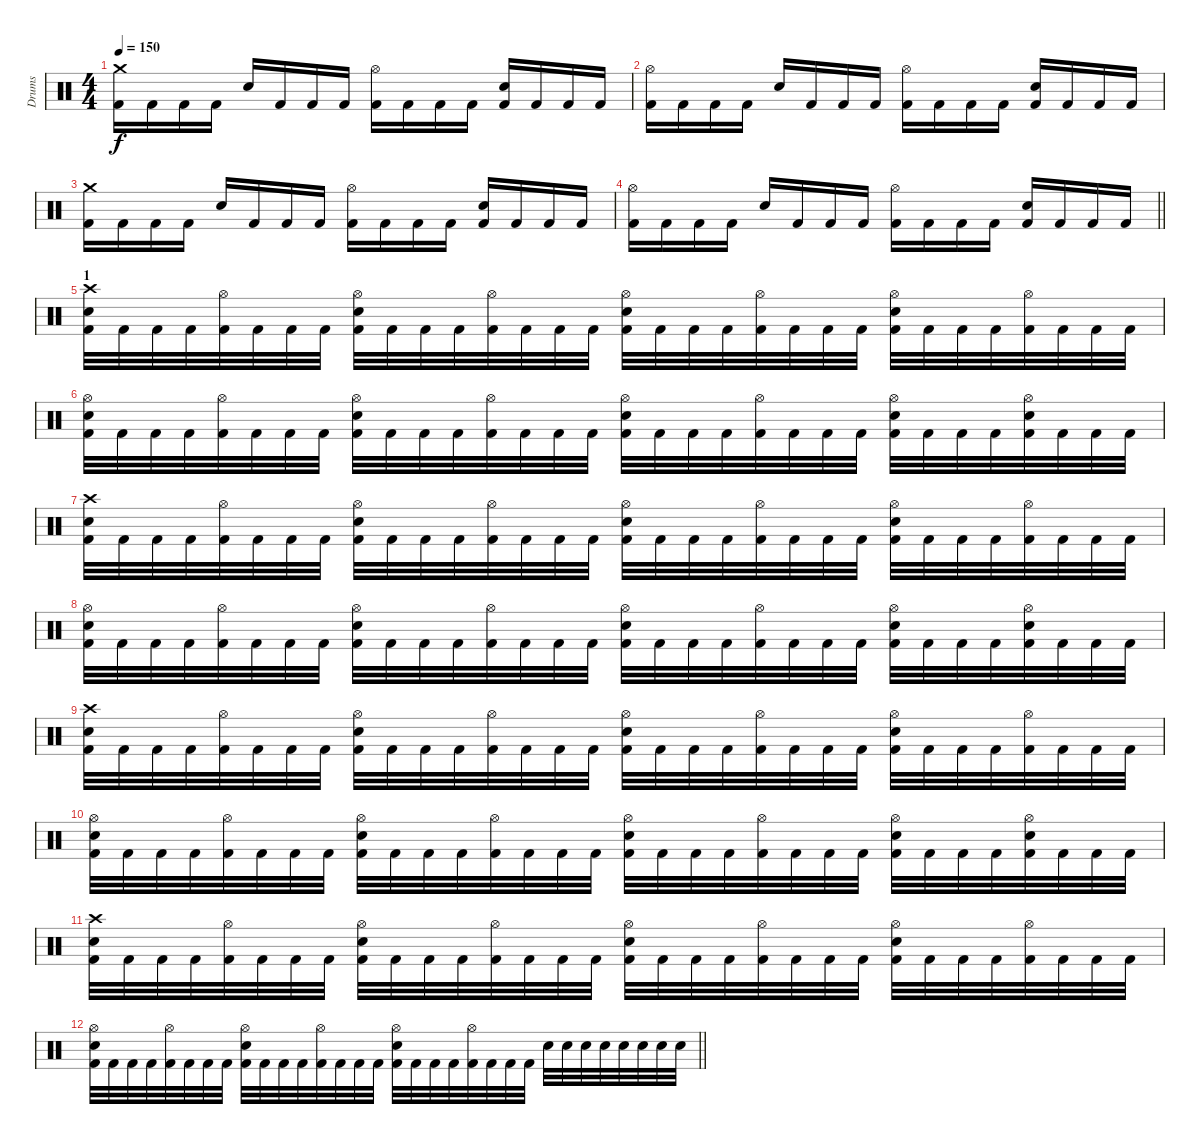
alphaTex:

\track ("Drums" "Drums") {instrument percussion}
\staff {score}
\articulation defaults
\ts (4 4)
\tempo 150
\clef neutral
\ks c
("Crash medium (hit)" "Kick (hit) 2").16{dy f} "Kick (hit) 2".16 "Kick (hit) 2".16 "Kick (hit) 2".16 "Snare (hit) 2".16 "Kick (hit) 2".16 "Kick (hit) 2".16 "Kick (hit) 2".16 ("Hi-Hat (open)" "Kick (hit) 2").16 "Kick (hit) 2".16 "Kick (hit) 2".16 "Kick (hit) 2".16 ("Snare (hit) 2" "Kick (hit) 2").16 "Kick (hit) 2".16 "Kick (hit) 2".16 "Kick (hit) 2".16 |
("Hi-Hat (open)" "Kick (hit) 2").16 "Kick (hit) 2".16 "Kick (hit) 2".16 "Kick (hit) 2".16 "Snare (hit) 2".16 "Kick (hit) 2".16 "Kick (hit) 2".16 "Kick (hit) 2".16 ("Hi-Hat (open)" "Kick (hit) 2").16 "Kick (hit) 2".16 "Kick (hit) 2".16 "Kick (hit) 2".16 ("Snare (hit) 2" "Kick (hit) 2").16 "Kick (hit) 2".16 "Kick (hit) 2".16 "Kick (hit) 2".16 |
("Crash medium (hit)" "Kick (hit) 2").16 "Kick (hit) 2".16 "Kick (hit) 2".16 "Kick (hit) 2".16 "Snare (hit) 2".16 "Kick (hit) 2".16 "Kick (hit) 2".16 "Kick (hit) 2".16 ("Hi-Hat (open)" "Kick (hit) 2").16 "Kick (hit) 2".16 "Kick (hit) 2".16 "Kick (hit) 2".16 ("Snare (hit) 2" "Kick (hit) 2").16 "Kick (hit) 2".16 "Kick (hit) 2".16 "Kick (hit) 2".16 |
\barLineRight lightlight
("Hi-Hat (open)" "Kick (hit) 2").16 "Kick (hit) 2".16 "Kick (hit) 2".16 "Kick (hit) 2".16 "Snare (hit) 2".16 "Kick (hit) 2".16 "Kick (hit) 2".16 "Kick (hit) 2".16 ("Hi-Hat (open)" "Kick (hit) 2").16 "Kick (hit) 2".16 "Kick (hit) 2".16 "Kick (hit) 2".16 ("Snare (hit) 2" "Kick (hit) 2").16 "Kick (hit) 2".16 "Kick (hit) 2".16 "Kick (hit) 2".16 |
\section ("" "1")
("Crash high (hit)" "Snare (hit) 2" "Kick (hit) 2").32 "Kick (hit) 2".32 "Kick (hit) 2".32 "Kick (hit) 2".32 ("Hi-Hat (open)" "Kick (hit) 2").32 "Kick (hit) 2".32 "Kick (hit) 2".32 "Kick (hit) 2".32 ("Hi-Hat (open)" "Snare (hit) 2" "Kick (hit) 2").32 "Kick (hit) 2".32 "Kick (hit) 2".32 "Kick (hit) 2".32 ("Hi-Hat (open)" "Kick (hit) 2").32 "Kick (hit) 2".32 "Kick (hit) 2".32 "Kick (hit) 2".32 ("Hi-Hat (open)" "Snare (hit) 2" "Kick (hit) 2").32 "Kick (hit) 2".32 "Kick (hit) 2".32 "Kick (hit) 2".32 ("Hi-Hat (open)" "Kick (hit) 2").32 "Kick (hit) 2".32 "Kick (hit) 2".32 "Kick (hit) 2".32 ("Hi-Hat (open)" "Snare (hit) 2" "Kick (hit) 2").32 "Kick (hit) 2".32 "Kick (hit) 2".32 "Kick (hit) 2".32 ("Hi-Hat (open)" "Kick (hit) 2").32 "Kick (hit) 2".32 "Kick (hit) 2".32 "Kick (hit) 2".32 |
("Hi-Hat (open)" "Snare (hit) 2" "Kick (hit) 2").32 "Kick (hit) 2".32 "Kick (hit) 2".32 "Kick (hit) 2".32 ("Hi-Hat (open)" "Kick (hit) 2").32 "Kick (hit) 2".32 "Kick (hit) 2".32 "Kick (hit) 2".32 ("Hi-Hat (open)" "Snare (hit) 2" "Kick (hit) 2").32 "Kick (hit) 2".32 "Kick (hit) 2".32 "Kick (hit) 2".32 ("Hi-Hat (open)" "Kick (hit) 2").32 "Kick (hit) 2".32 "Kick (hit) 2".32 "Kick (hit) 2".32 ("Hi-Hat (open)" "Snare (hit) 2" "Kick (hit) 2").32 "Kick (hit) 2".32 "Kick (hit) 2".32 "Kick (hit) 2".32 ("Hi-Hat (open)" "Kick (hit) 2").32 "Kick (hit) 2".32 "Kick (hit) 2".32 "Kick (hit) 2".32 ("Hi-Hat (open)" "Snare (hit) 2" "Kick (hit) 2").32 "Kick (hit) 2".32 "Kick (hit) 2".32 "Kick (hit) 2".32 ("Hi-Hat (open)" "Snare (hit) 2" "Kick (hit) 2").32 "Kick (hit) 2".32 "Kick (hit) 2".32 "Kick (hit) 2".32 |
("Crash high (hit)" "Snare (hit) 2" "Kick (hit) 2").32 "Kick (hit) 2".32 "Kick (hit) 2".32 "Kick (hit) 2".32 ("Hi-Hat (open)" "Kick (hit) 2").32 "Kick (hit) 2".32 "Kick (hit) 2".32 "Kick (hit) 2".32 ("Hi-Hat (open)" "Snare (hit) 2" "Kick (hit) 2").32 "Kick (hit) 2".32 "Kick (hit) 2".32 "Kick (hit) 2".32 ("Hi-Hat (open)" "Kick (hit) 2").32 "Kick (hit) 2".32 "Kick (hit) 2".32 "Kick (hit) 2".32 ("Hi-Hat (open)" "Snare (hit) 2" "Kick (hit) 2").32 "Kick (hit) 2".32 "Kick (hit) 2".32 "Kick (hit) 2".32 ("Hi-Hat (open)" "Kick (hit) 2").32 "Kick (hit) 2".32 "Kick (hit) 2".32 "Kick (hit) 2".32 ("Hi-Hat (open)" "Snare (hit) 2" "Kick (hit) 2").32 "Kick (hit) 2".32 "Kick (hit) 2".32 "Kick (hit) 2".32 ("Hi-Hat (open)" "Kick (hit) 2").32 "Kick (hit) 2".32 "Kick (hit) 2".32 "Kick (hit) 2".32 |
("Hi-Hat (open)" "Snare (hit) 2" "Kick (hit) 2").32 "Kick (hit) 2".32 "Kick (hit) 2".32 "Kick (hit) 2".32 ("Hi-Hat (open)" "Kick (hit) 2").32 "Kick (hit) 2".32 "Kick (hit) 2".32 "Kick (hit) 2".32 ("Hi-Hat (open)" "Snare (hit) 2" "Kick (hit) 2").32 "Kick (hit) 2".32 "Kick (hit) 2".32 "Kick (hit) 2".32 ("Hi-Hat (open)" "Kick (hit) 2").32 "Kick (hit) 2".32 "Kick (hit) 2".32 "Kick (hit) 2".32 ("Hi-Hat (open)" "Snare (hit) 2" "Kick (hit) 2").32 "Kick (hit) 2".32 "Kick (hit) 2".32 "Kick (hit) 2".32 ("Hi-Hat (open)" "Kick (hit) 2").32 "Kick (hit) 2".32 "Kick (hit) 2".32 "Kick (hit) 2".32 ("Hi-Hat (open)" "Snare (hit) 2" "Kick (hit) 2").32 "Kick (hit) 2".32 "Kick (hit) 2".32 "Kick (hit) 2".32 ("Hi-Hat (open)" "Snare (hit) 2" "Kick (hit) 2").32 "Kick (hit) 2".32 "Kick (hit) 2".32 "Kick (hit) 2".32 |
("Crash high (hit)" "Snare (hit) 2" "Kick (hit) 2").32 "Kick (hit) 2".32 "Kick (hit) 2".32 "Kick (hit) 2".32 ("Hi-Hat (open)" "Kick (hit) 2").32 "Kick (hit) 2".32 "Kick (hit) 2".32 "Kick (hit) 2".32 ("Hi-Hat (open)" "Snare (hit) 2" "Kick (hit) 2").32 "Kick (hit) 2".32 "Kick (hit) 2".32 "Kick (hit) 2".32 ("Hi-Hat (open)" "Kick (hit) 2").32 "Kick (hit) 2".32 "Kick (hit) 2".32 "Kick (hit) 2".32 ("Hi-Hat (open)" "Snare (hit) 2" "Kick (hit) 2").32 "Kick (hit) 2".32 "Kick (hit) 2".32 "Kick (hit) 2".32 ("Hi-Hat (open)" "Kick (hit) 2").32 "Kick (hit) 2".32 "Kick (hit) 2".32 "Kick (hit) 2".32 ("Hi-Hat (open)" "Snare (hit) 2" "Kick (hit) 2").32 "Kick (hit) 2".32 "Kick (hit) 2".32 "Kick (hit) 2".32 ("Hi-Hat (open)" "Kick (hit) 2").32 "Kick (hit) 2".32 "Kick (hit) 2".32 "Kick (hit) 2".32 |
("Hi-Hat (open)" "Snare (hit) 2" "Kick (hit) 2").32 "Kick (hit) 2".32 "Kick (hit) 2".32 "Kick (hit) 2".32 ("Hi-Hat (open)" "Kick (hit) 2").32 "Kick (hit) 2".32 "Kick (hit) 2".32 "Kick (hit) 2".32 ("Hi-Hat (open)" "Snare (hit) 2" "Kick (hit) 2").32 "Kick (hit) 2".32 "Kick (hit) 2".32 "Kick (hit) 2".32 ("Hi-Hat (open)" "Kick (hit) 2").32 "Kick (hit) 2".32 "Kick (hit) 2".32 "Kick (hit) 2".32 ("Hi-Hat (open)" "Snare (hit) 2" "Kick (hit) 2").32 "Kick (hit) 2".32 "Kick (hit) 2".32 "Kick (hit) 2".32 ("Hi-Hat (open)" "Kick (hit) 2").32 "Kick (hit) 2".32 "Kick (hit) 2".32 "Kick (hit) 2".32 ("Hi-Hat (open)" "Snare (hit) 2" "Kick (hit) 2").32 "Kick (hit) 2".32 "Kick (hit) 2".32 "Kick (hit) 2".32 ("Hi-Hat (open)" "Snare (hit) 2" "Kick (hit) 2").32 "Kick (hit) 2".32 "Kick (hit) 2".32 "Kick (hit) 2".32 |
("Crash high (hit)" "Snare (hit) 2" "Kick (hit) 2").32 "Kick (hit) 2".32 "Kick (hit) 2".32 "Kick (hit) 2".32 ("Hi-Hat (open)" "Kick (hit) 2").32 "Kick (hit) 2".32 "Kick (hit) 2".32 "Kick (hit) 2".32 ("Hi-Hat (open)" "Snare (hit) 2" "Kick (hit) 2").32 "Kick (hit) 2".32 "Kick (hit) 2".32 "Kick (hit) 2".32 ("Hi-Hat (open)" "Kick (hit) 2").32 "Kick (hit) 2".32 "Kick (hit) 2".32 "Kick (hit) 2".32 ("Hi-Hat (open)" "Snare (hit) 2" "Kick (hit) 2").32 "Kick (hit) 2".32 "Kick (hit) 2".32 "Kick (hit) 2".32 ("Hi-Hat (open)" "Kick (hit) 2").32 "Kick (hit) 2".32 "Kick (hit) 2".32 "Kick (hit) 2".32 ("Hi-Hat (open)" "Snare (hit) 2" "Kick (hit) 2").32 "Kick (hit) 2".32 "Kick (hit) 2".32 "Kick (hit) 2".32 ("Hi-Hat (open)" "Kick (hit) 2").32 "Kick (hit) 2".32 "Kick (hit) 2".32 "Kick (hit) 2".32 |
\barLineRight lightlight
("Hi-Hat (open)" "Snare (hit) 2" "Kick (hit) 2").32 "Kick (hit) 2".32 "Kick (hit) 2".32 "Kick (hit) 2".32 ("Hi-Hat (open)" "Kick (hit) 2").32 "Kick (hit) 2".32 "Kick (hit) 2".32 "Kick (hit) 2".32 ("Hi-Hat (open)" "Snare (hit) 2" "Kick (hit) 2").32 "Kick (hit) 2".32 "Kick (hit) 2".32 "Kick (hit) 2".32 ("Hi-Hat (open)" "Kick (hit) 2").32 "Kick (hit) 2".32 "Kick (hit) 2".32 "Kick (hit) 2".32 ("Hi-Hat (open)" "Snare (hit) 2" "Kick (hit) 2").32 "Kick (hit) 2".32 "Kick (hit) 2".32 "Kick (hit) 2".32 ("Hi-Hat (open)" "Kick (hit) 2").32 "Kick (hit) 2".32 "Kick (hit) 2".32 "Kick (hit) 2".32 "Snare (hit) 2".32 "Snare (hit) 2".32 "Snare (hit) 2".32 "Snare (hit) 2".32 "Snare (hit) 2".32 "Snare (hit) 2".32 "Snare (hit) 2".32 "Snare (hit) 2".32
